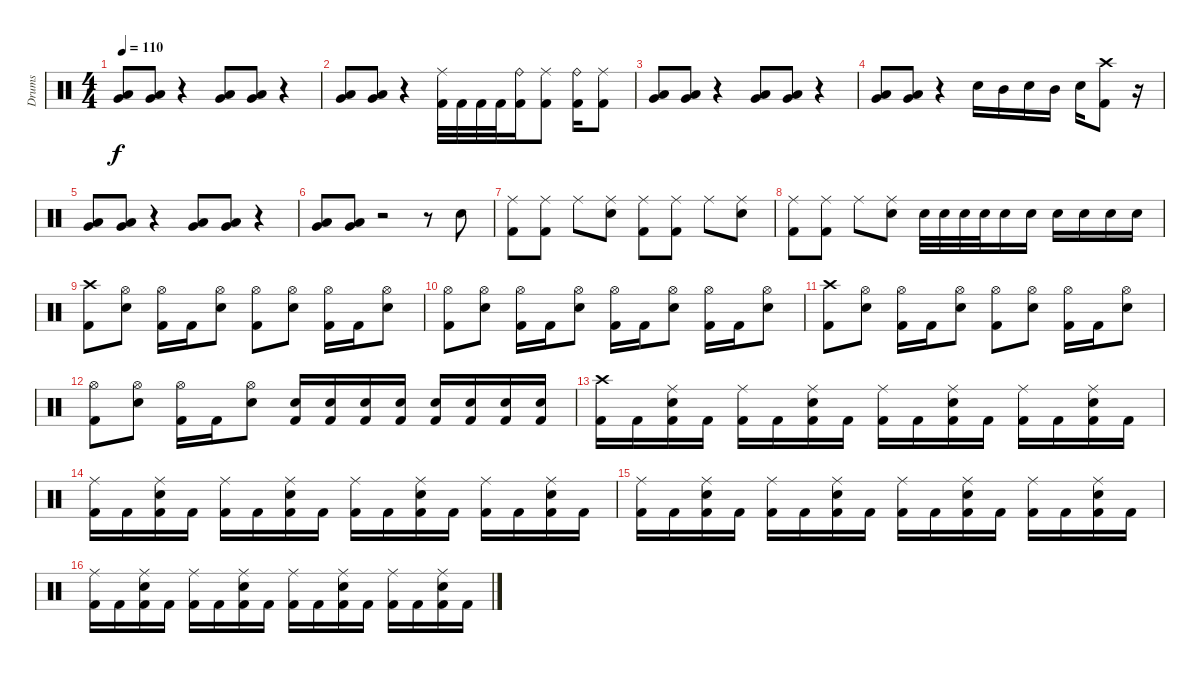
\track ("Drums" "Drums") {instrument percussion}
\staff {score}
\articulation defaults
\ts (4 4)
\tempo 110
\clef neutral
\ks c
("Very Low Tom (hit)" "Low Floor Tom (hit)").8{dy f} ("Very Low Tom (hit)" "Low Floor Tom (hit)").8 r.4 ("Very Low Tom (hit)" "Low Floor Tom (hit)").8 ("Very Low Tom (hit)" "Low Floor Tom (hit)").8 r.4 |
("Very Low Tom (hit)" "Low Floor Tom (hit)").8 ("Very Low Tom (hit)" "Low Floor Tom (hit)").8 r.4 ("Ride (middle)" "Kick (hit) 2").32 "Kick (hit) 2".32 "Kick (hit) 2".32 "Kick (hit) 2".32 ("Ride (bell)" "Kick (hit) 2").16 ("Ride (middle)" "Kick (hit) 2").8 ("Ride (bell)" "Kick (hit) 2").16 ("Ride (middle)" "Kick (hit) 2").8 |
("Very Low Tom (hit)" "Low Floor Tom (hit)").8 ("Very Low Tom (hit)" "Low Floor Tom (hit)").8 r.4 ("Very Low Tom (hit)" "Low Floor Tom (hit)").8 ("Very Low Tom (hit)" "Low Floor Tom (hit)").8 r.4 |
("Very Low Tom (hit)" "Low Floor Tom (hit)").8 ("Very Low Tom (hit)" "Low Floor Tom (hit)").8 r.4 "Electric Snare (hit)".16 "Mid Tom (hit)".16 "Electric Snare (hit)".16 "Mid Tom (hit)".16 "Electric Snare (hit)".16 ("Crash high (hit)" "Kick (hit) 2").8 r.16 |
("Very Low Tom (hit)" "Low Floor Tom (hit)").8 ("Very Low Tom (hit)" "Low Floor Tom (hit)").8 r.4 ("Very Low Tom (hit)" "Low Floor Tom (hit)").8 ("Very Low Tom (hit)" "Low Floor Tom (hit)").8 r.4 |
("Very Low Tom (hit)" "Low Floor Tom (hit)").8 ("Very Low Tom (hit)" "Low Floor Tom (hit)").8 r.2 r.8 "Electric Snare (hit)".8 |
("Ride (middle)" "Kick (hit) 2").8 ("Ride (middle)" "Kick (hit) 2").8 "Ride (middle)".8 ("Ride (middle)" "Electric Snare (hit)").8 ("Ride (middle)" "Kick (hit) 2").8 ("Ride (middle)" "Kick (hit) 2").8 "Ride (middle)".8 ("Ride (middle)" "Electric Snare (hit)").8 |
("Ride (middle)" "Kick (hit) 2").8 ("Ride (middle)" "Kick (hit) 2").8 "Ride (middle)".8 ("Ride (middle)" "Electric Snare (hit)").8 "Electric Snare (hit)".32 "Electric Snare (hit)".32 "Electric Snare (hit)".32 "Electric Snare (hit)".32 "Electric Snare (hit)".16 "Electric Snare (hit)".16 "Electric Snare (hit)".16 "Electric Snare (hit)".16 "Electric Snare (hit)".16 "Electric Snare (hit)".16 |
("Crash high (hit)" "Kick (hit) 2").8 ("Hi-Hat (open)" "Electric Snare (hit)").8 ("Hi-Hat (open)" "Kick (hit) 2").16 "Kick (hit) 2".16 ("Hi-Hat (open)" "Electric Snare (hit)").8 ("Hi-Hat (open)" "Kick (hit) 2").8 ("Hi-Hat (open)" "Electric Snare (hit)").8 ("Hi-Hat (open)" "Kick (hit) 2").16 "Kick (hit) 2".16 ("Hi-Hat (open)" "Electric Snare (hit)").8 |
("Hi-Hat (open)" "Kick (hit) 2").8 ("Hi-Hat (open)" "Electric Snare (hit)").8 ("Hi-Hat (open)" "Kick (hit) 2").16 "Kick (hit) 2".16 ("Hi-Hat (open)" "Electric Snare (hit)").8 ("Hi-Hat (open)" "Kick (hit) 2").16 "Kick (hit) 2".16 ("Hi-Hat (open)" "Electric Snare (hit)").8 ("Hi-Hat (open)" "Kick (hit) 2").16 "Kick (hit) 2".16 ("Hi-Hat (open)" "Electric Snare (hit)").8 |
("Crash high (hit)" "Kick (hit) 2").8 ("Hi-Hat (open)" "Electric Snare (hit)").8 ("Hi-Hat (open)" "Kick (hit) 2").16 "Kick (hit) 2".16 ("Hi-Hat (open)" "Electric Snare (hit)").8 ("Hi-Hat (open)" "Kick (hit) 2").8 ("Hi-Hat (open)" "Electric Snare (hit)").8 ("Hi-Hat (open)" "Kick (hit) 2").16 "Kick (hit) 2".16 ("Hi-Hat (open)" "Electric Snare (hit)").8 |
("Hi-Hat (open)" "Kick (hit) 2").8 ("Hi-Hat (open)" "Electric Snare (hit)").8 ("Hi-Hat (open)" "Kick (hit) 2").16 "Kick (hit) 2".16 ("Hi-Hat (open)" "Electric Snare (hit)").8 ("Electric Snare (hit)" "Kick (hit) 2").16 ("Electric Snare (hit)" "Kick (hit) 2").16 ("Electric Snare (hit)" "Kick (hit) 2").16 ("Electric Snare (hit)" "Kick (hit) 2").16 ("Electric Snare (hit)" "Kick (hit) 2").16 ("Electric Snare (hit)" "Kick (hit) 2").16 ("Electric Snare (hit)" "Kick (hit) 2").16 ("Electric Snare (hit)" "Kick (hit) 2").16 |
("Crash high (hit)" "Kick (hit) 2").16 "Kick (hit) 2".16 ("Ride (middle)" "Electric Snare (hit)" "Kick (hit) 2").16 "Kick (hit) 2".16 ("Ride (middle)" "Kick (hit) 2").16 "Kick (hit) 2".16 ("Ride (middle)" "Electric Snare (hit)" "Kick (hit) 2").16 "Kick (hit) 2".16 ("Ride (middle)" "Kick (hit) 2").16 "Kick (hit) 2".16 ("Ride (middle)" "Electric Snare (hit)" "Kick (hit) 2").16 "Kick (hit) 2".16 ("Ride (middle)" "Kick (hit) 2").16 "Kick (hit) 2".16 ("Ride (middle)" "Electric Snare (hit)" "Kick (hit) 2").16 "Kick (hit) 2".16 |
("Ride (middle)" "Kick (hit) 2").16 "Kick (hit) 2".16 ("Ride (middle)" "Electric Snare (hit)" "Kick (hit) 2").16 "Kick (hit) 2".16 ("Ride (middle)" "Kick (hit) 2").16 "Kick (hit) 2".16 ("Ride (middle)" "Electric Snare (hit)" "Kick (hit) 2").16 "Kick (hit) 2".16 ("Ride (middle)" "Kick (hit) 2").16 "Kick (hit) 2".16 ("Ride (middle)" "Electric Snare (hit)" "Kick (hit) 2").16 "Kick (hit) 2".16 ("Ride (middle)" "Kick (hit) 2").16 "Kick (hit) 2".16 ("Ride (middle)" "Electric Snare (hit)" "Kick (hit) 2").16 "Kick (hit) 2".16 |
("Ride (middle)" "Kick (hit) 2").16 "Kick (hit) 2".16 ("Ride (middle)" "Electric Snare (hit)" "Kick (hit) 2").16 "Kick (hit) 2".16 ("Ride (middle)" "Kick (hit) 2").16 "Kick (hit) 2".16 ("Ride (middle)" "Electric Snare (hit)" "Kick (hit) 2").16 "Kick (hit) 2".16 ("Ride (middle)" "Kick (hit) 2").16 "Kick (hit) 2".16 ("Ride (middle)" "Electric Snare (hit)" "Kick (hit) 2").16 "Kick (hit) 2".16 ("Ride (middle)" "Kick (hit) 2").16 "Kick (hit) 2".16 ("Ride (middle)" "Electric Snare (hit)" "Kick (hit) 2").16 "Kick (hit) 2".16 |
("Ride (middle)" "Kick (hit) 2").16 "Kick (hit) 2".16 ("Ride (middle)" "Electric Snare (hit)" "Kick (hit) 2").16 "Kick (hit) 2".16 ("Ride (middle)" "Kick (hit) 2").16 "Kick (hit) 2".16 ("Ride (middle)" "Electric Snare (hit)" "Kick (hit) 2").16 "Kick (hit) 2".16 ("Ride (middle)" "Kick (hit) 2").16 "Kick (hit) 2".16 ("Ride (middle)" "Electric Snare (hit)" "Kick (hit) 2").16 "Kick (hit) 2".16 ("Ride (middle)" "Kick (hit) 2").16 "Kick (hit) 2".16 ("Ride (middle)" "Electric Snare (hit)" "Kick (hit) 2").16 "Kick (hit) 2".16
